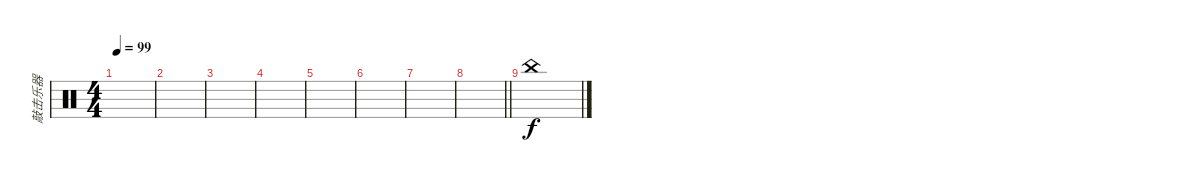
\track ("敲击乐器" "敲击乐器") {instrument percussion}
\staff {score}
\articulation defaults
\ts (4 4)
\tempo 99
\clef neutral
\ks c
|
|
|
|
|
|
|
\barLineRight lightlight
|
"China (hit)".1
